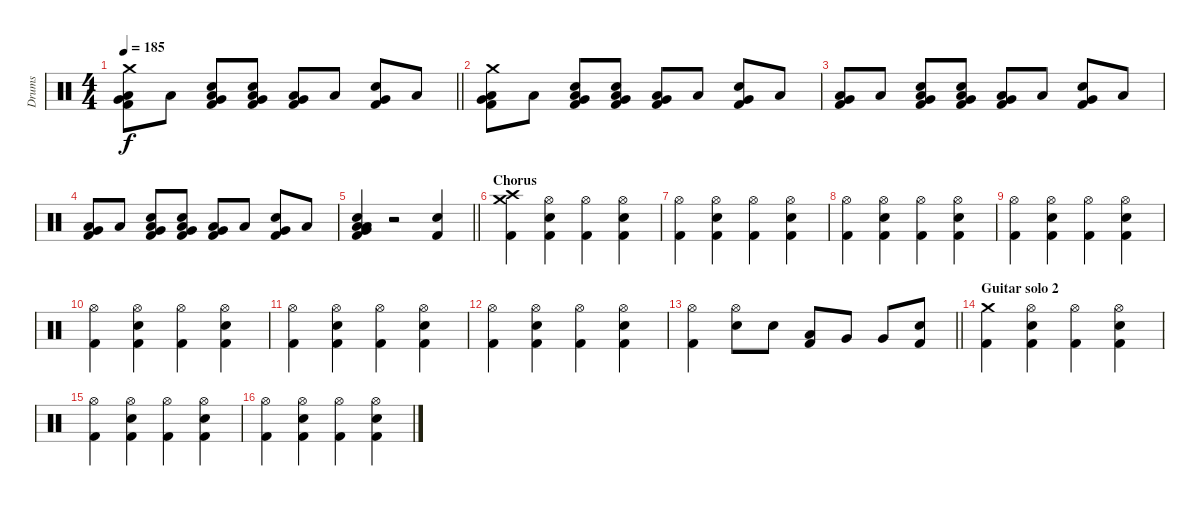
\track ("Drums" "Drums") {instrument percussion bank 1}
\staff {score}
\articulation defaults
\ts (4 4)
\tempo 185
\clef neutral
\barLineRight lightlight
\ks c
("Crash medium (hit)" "Very Low Tom (hit)" "Kick (hit) 2" "Low Tom (hit)").8{dy f} "Low Tom (hit)".8 ("Snare (hit) 2" "Kick (hit) 2" "Very Low Tom (hit)" "Low Tom (hit)").8 ("Snare (hit) 2" "Very Low Tom (hit)" "Kick (hit) 2" "Low Tom (hit)").8 ("Low Tom (hit)" "Very Low Tom (hit)" "Kick (hit) 2").8 "Low Tom (hit)".8 ("Snare (hit) 2" "Kick (hit) 2" "Very Low Tom (hit)").8 "Low Tom (hit)".8 |
("Crash medium (hit)" "Very Low Tom (hit)" "Kick (hit) 2" "Low Tom (hit)").8 "Low Tom (hit)".8 ("Snare (hit) 2" "Kick (hit) 2" "Very Low Tom (hit)" "Low Tom (hit)").8 ("Snare (hit) 2" "Very Low Tom (hit)" "Kick (hit) 2" "Low Tom (hit)").8 ("Low Tom (hit)" "Very Low Tom (hit)" "Kick (hit) 2").8 "Low Tom (hit)".8 ("Snare (hit) 2" "Kick (hit) 2" "Very Low Tom (hit)").8 "Low Tom (hit)".8 |
("Very Low Tom (hit)" "Kick (hit) 2" "Low Tom (hit)").8 "Low Tom (hit)".8 ("Snare (hit) 2" "Kick (hit) 2" "Very Low Tom (hit)" "Low Tom (hit)").8 ("Snare (hit) 2" "Very Low Tom (hit)" "Kick (hit) 2" "Low Tom (hit)").8 ("Low Tom (hit)" "Very Low Tom (hit)" "Kick (hit) 2").8 "Low Tom (hit)".8 ("Snare (hit) 2" "Kick (hit) 2" "Very Low Tom (hit)").8 "Low Tom (hit)".8 |
("Very Low Tom (hit)" "Kick (hit) 2" "Low Tom (hit)").8 "Low Tom (hit)".8 ("Snare (hit) 2" "Kick (hit) 2" "Very Low Tom (hit)" "Low Tom (hit)").8 ("Snare (hit) 2" "Very Low Tom (hit)" "Kick (hit) 2" "Low Tom (hit)").8 ("Low Tom (hit)" "Very Low Tom (hit)" "Kick (hit) 2").8 "Low Tom (hit)".8 ("Snare (hit) 2" "Kick (hit) 2" "Very Low Tom (hit)").8 "Low Tom (hit)".8 |
\barLineRight lightlight
("Kick (hit) 2" "Snare (hit) 2" "Low Tom (hit)" "Very Low Tom (hit)" "Low Floor Tom (hit)").4 r.2 ("Snare (hit) 2" "Kick (hit) 2").4 |
\section ("" "Chorus")
("Kick (hit) 2" "Crash high (hit)" "Crash medium (hit)").4 ("Kick (hit) 2" "Snare (hit) 2" "Hi-Hat (open)").4 ("Kick (hit) 2" "Hi-Hat (open)").4 ("Kick (hit) 2" "Snare (hit) 2" "Hi-Hat (open)").4 |
("Kick (hit) 2" "Hi-Hat (open)").4 ("Kick (hit) 2" "Snare (hit) 2" "Hi-Hat (open)").4 ("Kick (hit) 2" "Hi-Hat (open)").4 ("Kick (hit) 2" "Snare (hit) 2" "Hi-Hat (open)").4 |
("Kick (hit) 2" "Hi-Hat (open)").4 ("Kick (hit) 2" "Snare (hit) 2" "Hi-Hat (open)").4 ("Kick (hit) 2" "Hi-Hat (open)").4 ("Kick (hit) 2" "Snare (hit) 2" "Hi-Hat (open)").4 |
("Kick (hit) 2" "Hi-Hat (open)").4 ("Kick (hit) 2" "Snare (hit) 2" "Hi-Hat (open)").4 ("Kick (hit) 2" "Hi-Hat (open)").4 ("Kick (hit) 2" "Snare (hit) 2" "Hi-Hat (open)").4 |
("Kick (hit) 2" "Hi-Hat (open)").4 ("Kick (hit) 2" "Snare (hit) 2" "Hi-Hat (open)").4 ("Kick (hit) 2" "Hi-Hat (open)").4 ("Kick (hit) 2" "Snare (hit) 2" "Hi-Hat (open)").4 |
("Kick (hit) 2" "Hi-Hat (open)").4 ("Kick (hit) 2" "Snare (hit) 2" "Hi-Hat (open)").4 ("Kick (hit) 2" "Hi-Hat (open)").4 ("Kick (hit) 2" "Snare (hit) 2" "Hi-Hat (open)").4 |
("Kick (hit) 2" "Hi-Hat (open)").4 ("Kick (hit) 2" "Snare (hit) 2" "Hi-Hat (open)").4 ("Kick (hit) 2" "Hi-Hat (open)").4 ("Kick (hit) 2" "Snare (hit) 2" "Hi-Hat (open)").4 |
\barLineRight lightlight
("Kick (hit) 2" "Hi-Hat (open)").4 ("Snare (hit) 2" "Hi-Hat (open)").8 "Snare (hit) 2".8 ("Low Tom (hit)" "Kick (hit) 2").8 "Very Low Tom (hit)".8 "Very Low Tom (hit)".8 ("Snare (hit) 2" "Kick (hit) 2").8 |
\section ("" "Guitar solo 2")
("Kick (hit) 2" "Crash medium (hit)").4 ("Kick (hit) 2" "Snare (hit) 2" "Hi-Hat (open)").4 ("Kick (hit) 2" "Hi-Hat (open)").4 ("Kick (hit) 2" "Snare (hit) 2" "Hi-Hat (open)").4 |
("Kick (hit) 2" "Hi-Hat (open)").4 ("Kick (hit) 2" "Snare (hit) 2" "Hi-Hat (open)").4 ("Kick (hit) 2" "Hi-Hat (open)").4 ("Kick (hit) 2" "Snare (hit) 2" "Hi-Hat (open)").4 |
("Kick (hit) 2" "Hi-Hat (open)").4 ("Kick (hit) 2" "Snare (hit) 2" "Hi-Hat (open)").4 ("Kick (hit) 2" "Hi-Hat (open)").4 ("Kick (hit) 2" "Snare (hit) 2" "Hi-Hat (open)").4
